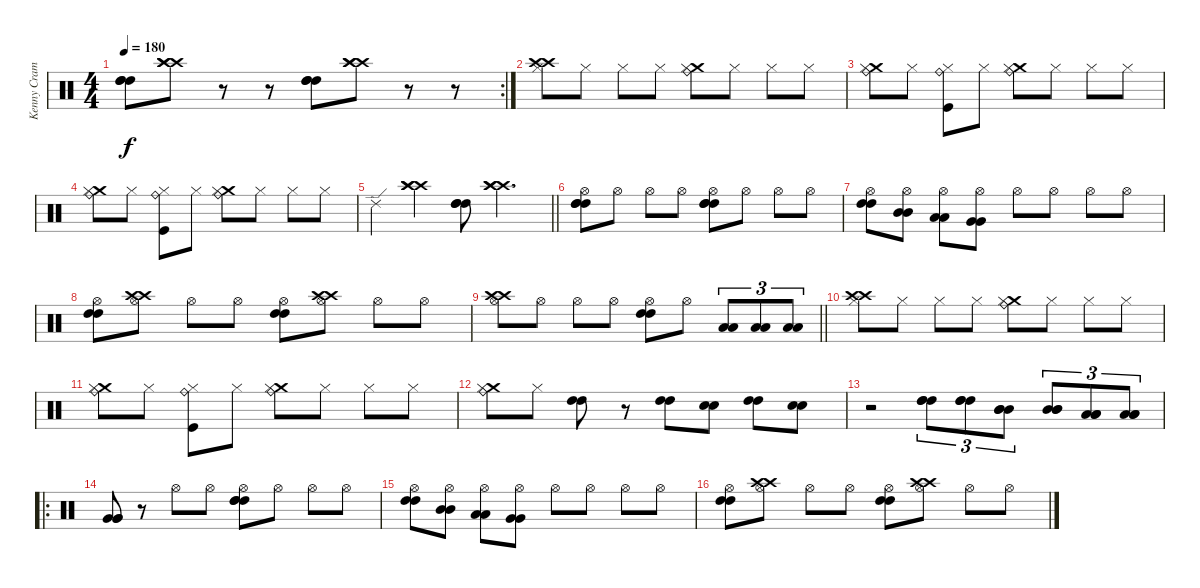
\track ("Kenny Cramme" "Kenny Cram") {instrument percussion}
\staff {score}
\articulation defaults
\rc 2
\ts (4 4)
\tempo 180
\clef neutral
\ks c
("High Tom (hit)" "High Tom (hit)" "High Tom (hit)").8{dy f} ("Crash high (hit)" "Crash high (hit)" "Crash high (hit)").8 r.8 r.8 ("High Tom (hit)" "High Tom (hit)" "High Tom (hit)").8 ("Crash high (hit)" "Crash high (hit)" "Crash high (hit)").8 r.8 r.8 |
("Crash high (hit)" "Crash high (hit)" "Hi-Hat (closed)").8 "Hi-Hat (closed)".8 "Hi-Hat (closed)".8 "Hi-Hat (closed)".8 ("Crash medium (hit)" "Ride (bell)" "Hi-Hat (closed)").8 "Hi-Hat (closed)".8 "Hi-Hat (closed)".8 "Hi-Hat (closed)".8 |
("Crash medium (hit)" "Ride (bell)" "Hi-Hat (closed)").8 "Hi-Hat (closed)".8 ("Kick (hit)" "Ride (bell)" "Hi-Hat (closed)").8 "Hi-Hat (closed)".8 ("Crash medium (hit)" "Ride (bell)" "Hi-Hat (closed)").8 "Hi-Hat (closed)".8 "Hi-Hat (closed)".8 "Hi-Hat (closed)".8 |
("Crash medium (hit)" "Ride (bell)" "Hi-Hat (closed)").8 "Hi-Hat (closed)".8 ("Kick (hit)" "Ride (bell)" "Hi-Hat (closed)").8 "Hi-Hat (closed)".8 ("Crash medium (hit)" "Ride (bell)" "Hi-Hat (closed)").8 "Hi-Hat (closed)".8 "Hi-Hat (closed)".8 "Hi-Hat (closed)".8 |
\barLineRight lightlight "Ride (edge) 2".4
("Crash high (hit)" "Crash high (hit)" "Crash high (hit)").4 ("High Tom (hit)" "High Tom (hit)" "High Tom (hit)").8 ("Crash high (hit)" "Crash high (hit)" "Crash high (hit)").4{d} |
("High Tom (hit)" "High Tom (hit)" "High Tom (hit)" "Hi-Hat (open)").8 "Hi-Hat (open)".8 "Hi-Hat (open)".8 "Hi-Hat (open)".8 ("High Tom (hit)" "High Tom (hit)" "High Tom (hit)" "Hi-Hat (open)").8 "Hi-Hat (open)".8 "Hi-Hat (open)".8 "Hi-Hat (open)".8 |
("High Tom (hit)" "High Tom (hit)" "Hi-Hat (open)").8 ("Mid Tom (hit)" "Mid Tom (hit)" "Hi-Hat (open)").8 ("Low Tom (hit)" "Low Tom (hit)" "Hi-Hat (open)").8 ("Very Low Tom (hit)" "Very Low Tom (hit)" "Hi-Hat (open)").8 "Hi-Hat (open)".8 "Hi-Hat (open)".8 "Hi-Hat (open)".8 "Hi-Hat (open)".8 |
("High Tom (hit)" "High Tom (hit)" "Hi-Hat (open)").8 ("Crash high (hit)" "Crash high (hit)" "Hi-Hat (open)").8 "Hi-Hat (open)".8 "Hi-Hat (open)".8 ("High Tom (hit)" "High Tom (hit)" "Hi-Hat (open)").8 ("Crash high (hit)" "Crash high (hit)" "Hi-Hat (open)").8 "Hi-Hat (open)".8 "Hi-Hat (open)".8 |
\barLineRight lightlight
("Crash high (hit)" "Crash high (hit)" "Hi-Hat (open)").8 "Hi-Hat (open)".8 "Hi-Hat (open)".8 "Hi-Hat (open)".8 ("High Tom (hit)" "High Tom (hit)" "Hi-Hat (open)").8 "Hi-Hat (open)".8 ("Low Tom (hit)" "Low Tom (hit)").8{tu (3 2)} ("Low Tom (hit)" "Low Tom (hit)").8{tu (3 2)} ("Low Tom (hit)" "Low Tom (hit)").8{tu (3 2)} |
("Crash high (hit)" "Crash high (hit)" "Hi-Hat (closed)").8 "Hi-Hat (closed)".8 "Hi-Hat (closed)".8 "Hi-Hat (closed)".8 ("Crash medium (hit)" "Ride (bell)" "Hi-Hat (closed)").8 "Hi-Hat (closed)".8 "Hi-Hat (closed)".8 "Hi-Hat (closed)".8 |
("Crash medium (hit)" "Ride (bell)" "Hi-Hat (closed)").8 "Hi-Hat (closed)".8 ("Kick (hit)" "Ride (bell)" "Hi-Hat (closed)").8 "Hi-Hat (closed)".8 ("Crash medium (hit)" "Ride (bell)" "Hi-Hat (closed)").8 "Hi-Hat (closed)".8 "Hi-Hat (closed)".8 "Hi-Hat (closed)".8 |
("Crash medium (hit)" "Ride (bell)" "Hi-Hat (closed)").8 "Hi-Hat (closed)".8 ("High Tom (hit)" "High Tom (hit)").8 r.8 ("High Tom (hit)" "High Tom (hit)").8 ("Snare (hit) 2" "Snare (hit) 2").8 ("High Tom (hit)" "High Tom (hit)").8 ("Snare (hit) 2" "Snare (hit) 2").8 |
r.2 ("High Tom (hit)" "High Tom (hit)" "High Tom (hit)").8{tu (3 2)} ("High Tom (hit)" "High Tom (hit)" "High Tom (hit)").8{tu (3 2)} ("Mid Tom (hit)" "Mid Tom (hit)" "Mid Tom (hit)").8{tu (3 2)} ("Mid Tom (hit)" "Mid Tom (hit)" "Mid Tom (hit)").8{tu (3 2)} ("Low Tom (hit)" "Low Tom (hit)" "Low Tom (hit)").8{tu (3 2)} ("Low Tom (hit)" "Low Tom (hit)" "Low Tom (hit)").8{tu (3 2)} |
\ro
("Very Low Tom (hit)" "Very Low Tom (hit)" "Very Low Tom (hit)").8 r.8 "Hi-Hat (open)".8 "Hi-Hat (open)".8 ("High Tom (hit)" "High Tom (hit)" "High Tom (hit)" "Hi-Hat (open)").8 "Hi-Hat (open)".8 "Hi-Hat (open)".8 "Hi-Hat (open)".8 |
("High Tom (hit)" "High Tom (hit)" "Hi-Hat (open)").8 ("Mid Tom (hit)" "Mid Tom (hit)" "Hi-Hat (open)").8 ("Low Tom (hit)" "Low Tom (hit)" "Hi-Hat (open)").8 ("Very Low Tom (hit)" "Very Low Tom (hit)" "Hi-Hat (open)").8 "Hi-Hat (open)".8 "Hi-Hat (open)".8 "Hi-Hat (open)".8 "Hi-Hat (open)".8 |
("High Tom (hit)" "High Tom (hit)" "Hi-Hat (open)").8 ("Crash high (hit)" "Crash high (hit)" "Hi-Hat (open)").8 "Hi-Hat (open)".8 "Hi-Hat (open)".8 ("High Tom (hit)" "High Tom (hit)" "Hi-Hat (open)").8 ("Crash high (hit)" "Crash high (hit)" "Hi-Hat (open)").8 "Hi-Hat (open)".8 "Hi-Hat (open)".8
